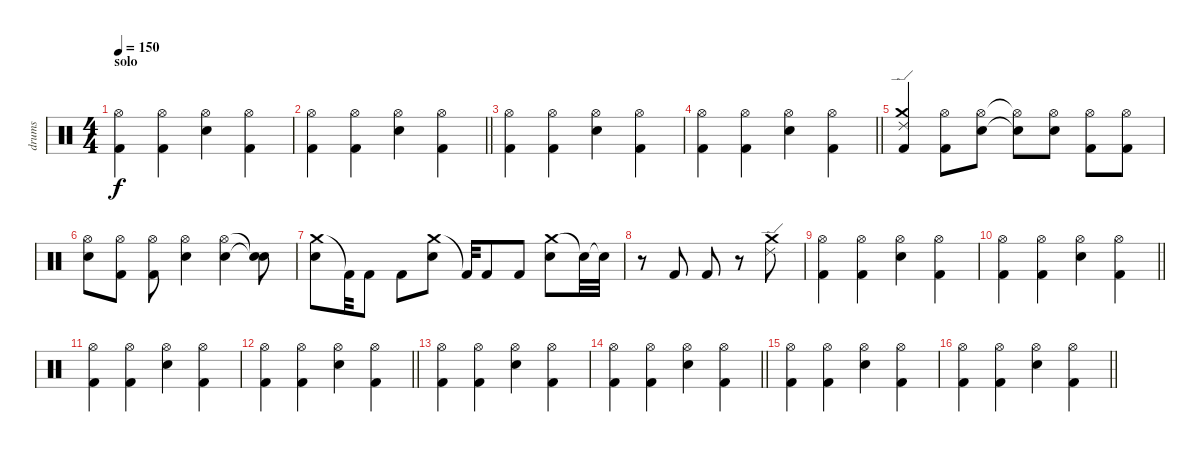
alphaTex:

\track ("drums" "drums") {instrument percussion}
\staff {score}
\articulation defaults
\ts (4 4)
\section ("" "solo")
\tempo 150
\clef neutral
\ks c
("Hi-Hat (open)" "Kick (hit) 2").4{dy f} ("Hi-Hat (open)" "Kick (hit) 2").4 ("Hi-Hat (open)" "Electric Snare (hit)").4 ("Hi-Hat (open)" "Kick (hit) 2").4 |
\barLineRight lightlight
("Hi-Hat (open)" "Kick (hit) 2").4 ("Hi-Hat (open)" "Kick (hit) 2").4 ("Hi-Hat (open)" "Electric Snare (hit)").4 ("Hi-Hat (open)" "Kick (hit) 2").4 |
("Hi-Hat (open)" "Kick (hit) 2").4 ("Hi-Hat (open)" "Kick (hit) 2").4 ("Hi-Hat (open)" "Electric Snare (hit)").4 ("Hi-Hat (open)" "Kick (hit) 2").4 |
\barLineRight lightlight
("Hi-Hat (open)" "Kick (hit) 2").4 ("Hi-Hat (open)" "Kick (hit) 2").4 ("Hi-Hat (open)" "Electric Snare (hit)").4 ("Hi-Hat (open)" "Kick (hit) 2").4 |
("Crash medium (hit)" "Ride (edge) 2" "Kick (hit) 2").4 ("Hi-Hat (open)" "Kick (hit) 2").8 ("Electric Snare (hit)" "Hi-Hat (open)").8 ("Electric Snare (hit)"{t} "Hi-Hat (open)"{t}).8 ("Hi-Hat (open)" "Electric Snare (hit)").8 ("Hi-Hat (open)" "Kick (hit) 2").8 ("Hi-Hat (open)" "Kick (hit) 2").8 |
("Hi-Hat (open)" "Electric Snare (hit)").8 ("Hi-Hat (open)" "Kick (hit) 2").8 ("Hi-Hat (open)" "Kick (hit) 2").8 ("Hi-Hat (open)" "Electric Snare (hit)").4 ("Hi-Hat (open)" "Electric Snare (hit)").4 ("Snare (hit)"{t} "Snare (hit)"{t}).8 |
("Crash medium (hit)" "Electric Snare (hit)").8 "Kick (hit) 2"{t}.32 "Kick (hit) 2".8 "Kick (hit) 2".8 ("Crash medium (hit)" "Electric Snare (hit)").8 "Kick (hit) 2"{t}.32 "Kick (hit) 2".8 "Kick (hit) 2".8 ("Crash medium (hit)" "Electric Snare (hit)").8 "Snare (hit)"{t}.32 "Snare (hit)"{t}.32 |
r.8 "Kick (hit) 2".8 "Kick (hit) 2".8 r.8 ("Crash medium (hit)" "Ride (edge) 2").8 |
("Hi-Hat (open)" "Kick (hit) 2").4 ("Hi-Hat (open)" "Kick (hit) 2").4 ("Hi-Hat (open)" "Electric Snare (hit)").4 ("Hi-Hat (open)" "Kick (hit) 2").4 |
\barLineRight lightlight
("Hi-Hat (open)" "Kick (hit) 2").4 ("Hi-Hat (open)" "Kick (hit) 2").4 ("Hi-Hat (open)" "Electric Snare (hit)").4 ("Hi-Hat (open)" "Kick (hit) 2").4 |
("Hi-Hat (open)" "Kick (hit) 2").4 ("Hi-Hat (open)" "Kick (hit) 2").4 ("Hi-Hat (open)" "Electric Snare (hit)").4 ("Hi-Hat (open)" "Kick (hit) 2").4 |
\barLineRight lightlight
("Hi-Hat (open)" "Kick (hit) 2").4 ("Hi-Hat (open)" "Kick (hit) 2").4 ("Hi-Hat (open)" "Electric Snare (hit)").4 ("Hi-Hat (open)" "Kick (hit) 2").4 |
("Hi-Hat (open)" "Kick (hit) 2").4 ("Hi-Hat (open)" "Kick (hit) 2").4 ("Hi-Hat (open)" "Electric Snare (hit)").4 ("Hi-Hat (open)" "Kick (hit) 2").4 |
\barLineRight lightlight
("Hi-Hat (open)" "Kick (hit) 2").4 ("Hi-Hat (open)" "Kick (hit) 2").4 ("Hi-Hat (open)" "Electric Snare (hit)").4 ("Hi-Hat (open)" "Kick (hit) 2").4 |
("Hi-Hat (open)" "Kick (hit) 2").4 ("Hi-Hat (open)" "Kick (hit) 2").4 ("Hi-Hat (open)" "Electric Snare (hit)").4 ("Hi-Hat (open)" "Kick (hit) 2").4 |
\barLineRight lightlight
("Hi-Hat (open)" "Kick (hit) 2").4 ("Hi-Hat (open)" "Kick (hit) 2").4 ("Hi-Hat (open)" "Electric Snare (hit)").4 ("Hi-Hat (open)" "Kick (hit) 2").4
